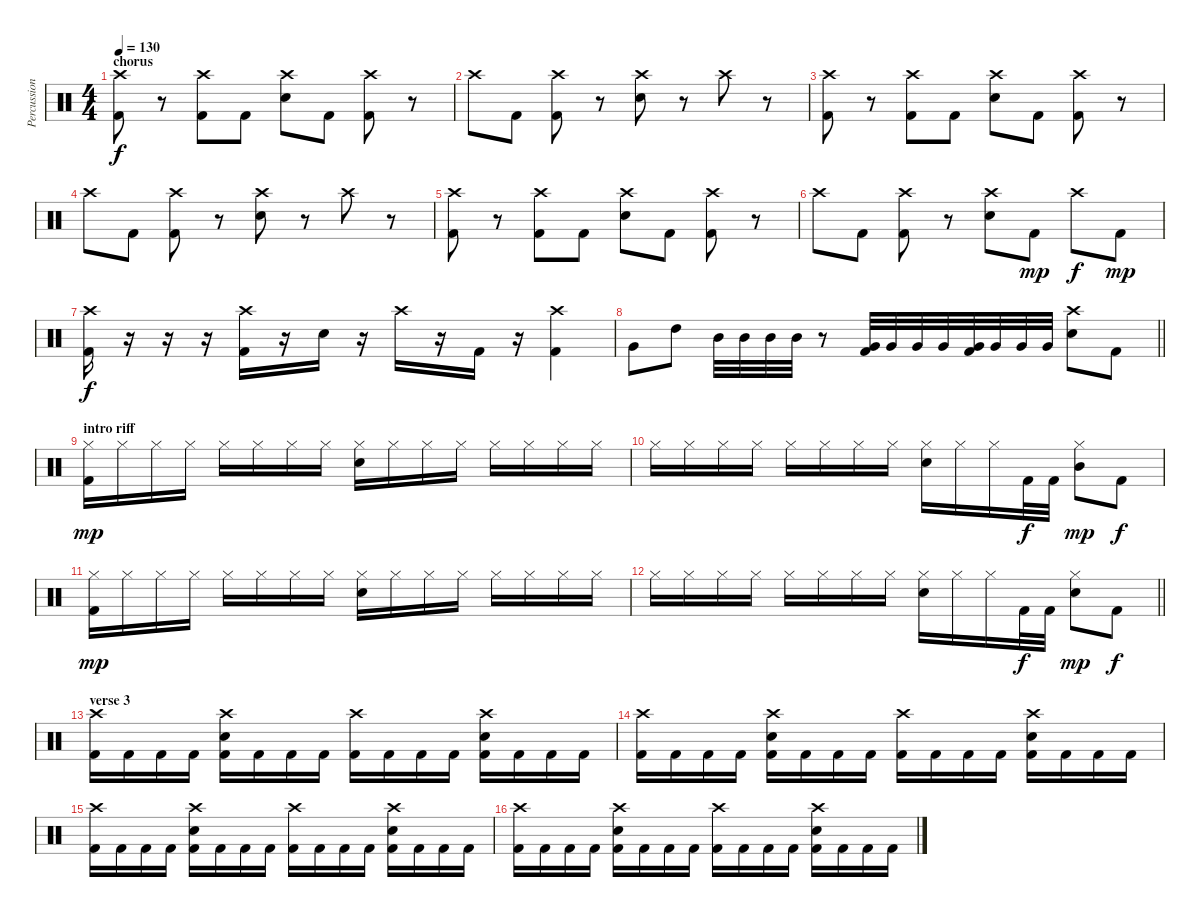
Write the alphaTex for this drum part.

\track ("Percussion" "Percussion") {instrument percussion}
\staff {score}
\articulation defaults
\ts (4 4)
\section ("" "chorus")
\tempo 130
\clef neutral
\ks c
("Crash high (hit)" "Kick (hit) 2").8{dy f} r.8 ("Crash high (hit)" "Kick (hit) 2").8 "Kick (hit) 2".8 ("Crash high (hit)" "Electric Snare (hit)").8 "Kick (hit) 2".8 ("Crash high (hit)" "Kick (hit) 2").8 r.8 |
"Crash high (hit)".8 "Kick (hit) 2".8 ("Crash high (hit)" "Kick (hit) 2").8 r.8 ("Crash high (hit)" "Electric Snare (hit)").8 r.8 "Crash high (hit)".8 r.8 |
("Crash high (hit)" "Kick (hit) 2").8 r.8 ("Crash high (hit)" "Kick (hit) 2").8 "Kick (hit) 2".8 ("Crash high (hit)" "Electric Snare (hit)").8 "Kick (hit) 2".8 ("Crash high (hit)" "Kick (hit) 2").8 r.8 |
"Crash high (hit)".8 "Kick (hit) 2".8 ("Crash high (hit)" "Kick (hit) 2").8 r.8 ("Crash high (hit)" "Electric Snare (hit)").8 r.8 "Crash high (hit)".8 r.8 |
("Crash high (hit)" "Kick (hit) 2").8 r.8 ("Crash high (hit)" "Kick (hit) 2").8 "Kick (hit) 2".8 ("Crash high (hit)" "Electric Snare (hit)").8 "Kick (hit) 2".8 ("Crash high (hit)" "Kick (hit) 2").8 r.8 |
"Crash high (hit)".8 "Kick (hit) 2".8 ("Crash high (hit)" "Kick (hit) 2").8 r.8 ("Crash high (hit)" "Electric Snare (hit)").8 "Kick (hit) 2".8{dy mp} "Crash high (hit)".8{dy f} "Kick (hit) 2".8{dy mp} |
("Crash high (hit)" "Kick (hit) 2").16{dy f} r.16 r.16 r.16 ("Crash high (hit)" "Kick (hit) 2").16 r.16 "Electric Snare (hit)".16 r.16 "Crash high (hit)".16 r.16 "Kick (hit) 2".16 r.16 ("Crash high (hit)" "Kick (hit) 2").4 |
\barLineRight lightlight "Very Low Tom (hit)".8 "High Tom (hit)".8 "Mid Tom (hit)".32 "Mid Tom (hit)".32 "Mid Tom (hit)".32 "Mid Tom (hit)".32
r.8 ("Very Low Tom (hit)" "Kick (hit) 2").32 "Very Low Tom (hit)".32 "Very Low Tom (hit)".32 "Very Low Tom (hit)".32 ("Very Low Tom (hit)" "Kick (hit) 2").32 "Very Low Tom (hit)".32 "Very Low Tom (hit)".32 "Very Low Tom (hit)".32 ("Crash high (hit)" "Electric Snare (hit)").8 "Kick (hit) 2".8 |
\section ("" "intro riff")
("Hi-Hat (closed)" "Kick (hit) 2").16{dy mp} "Hi-Hat (closed)".16 "Hi-Hat (closed)".16 "Hi-Hat (closed)".16 "Hi-Hat (closed)".16 "Hi-Hat (closed)".16 "Hi-Hat (closed)".16 "Hi-Hat (closed)".16 ("Hi-Hat (closed)" "Electric Snare (hit)").16 "Hi-Hat (closed)".16 "Hi-Hat (closed)".16 "Hi-Hat (closed)".16 "Hi-Hat (closed)".16 "Hi-Hat (closed)".16 "Hi-Hat (closed)".16 "Hi-Hat (closed)".16 |
"Hi-Hat (closed)".16 "Hi-Hat (closed)".16 "Hi-Hat (closed)".16 "Hi-Hat (closed)".16 "Hi-Hat (closed)".16 "Hi-Hat (closed)".16 "Hi-Hat (closed)".16 "Hi-Hat (closed)".16 ("Hi-Hat (closed)" "Electric Snare (hit)").16 "Hi-Hat (closed)".16 "Hi-Hat (closed)".16 "Kick (hit) 2".32{dy f} "Kick (hit) 2".32 ("Hi-Hat (closed)" "Mid Tom (hit)").8{dy mp} "Kick (hit) 2".8{dy f} |
("Hi-Hat (closed)" "Kick (hit) 2").16{dy mp} "Hi-Hat (closed)".16 "Hi-Hat (closed)".16 "Hi-Hat (closed)".16 "Hi-Hat (closed)".16 "Hi-Hat (closed)".16 "Hi-Hat (closed)".16 "Hi-Hat (closed)".16 ("Hi-Hat (closed)" "Electric Snare (hit)").16 "Hi-Hat (closed)".16 "Hi-Hat (closed)".16 "Hi-Hat (closed)".16 "Hi-Hat (closed)".16 "Hi-Hat (closed)".16 "Hi-Hat (closed)".16 "Hi-Hat (closed)".16 |
\barLineRight lightlight "Hi-Hat (closed)".16 "Hi-Hat (closed)".16 "Hi-Hat (closed)".16 "Hi-Hat (closed)".16 "Hi-Hat (closed)".16 "Hi-Hat (closed)".16 "Hi-Hat (closed)".16 "Hi-Hat (closed)".16
("Hi-Hat (closed)" "Electric Snare (hit)").16 "Hi-Hat (closed)".16 "Hi-Hat (closed)".16 "Kick (hit) 2".32{dy f} "Kick (hit) 2".32 ("Hi-Hat (closed)" "Electric Snare (hit)").8{dy mp} "Kick (hit) 2".8{dy f} |
\section ("" "verse 3")
("Crash high (hit)" "Kick (hit) 2").16 "Kick (hit) 2".16 "Kick (hit) 2".16 "Kick (hit) 2".16 ("Crash high (hit)" "Electric Snare (hit)" "Kick (hit) 2").16 "Kick (hit) 2".16 "Kick (hit) 2".16 "Kick (hit) 2".16 ("Crash high (hit)" "Kick (hit) 2").16 "Kick (hit) 2".16 "Kick (hit) 2".16 "Kick (hit) 2".16 ("Crash high (hit)" "Electric Snare (hit)" "Kick (hit) 2").16 "Kick (hit) 2".16 "Kick (hit) 2".16 "Kick (hit) 2".16 |
("Crash high (hit)" "Kick (hit) 2").16 "Kick (hit) 2".16 "Kick (hit) 2".16 "Kick (hit) 2".16 ("Crash high (hit)" "Electric Snare (hit)" "Kick (hit) 2").16 "Kick (hit) 2".16 "Kick (hit) 2".16 "Kick (hit) 2".16 ("Crash high (hit)" "Kick (hit) 2").16 "Kick (hit) 2".16 "Kick (hit) 2".16 "Kick (hit) 2".16 ("Crash high (hit)" "Electric Snare (hit)" "Kick (hit) 2").16 "Kick (hit) 2".16 "Kick (hit) 2".16 "Kick (hit) 2".16 |
("Crash high (hit)" "Kick (hit) 2").16 "Kick (hit) 2".16 "Kick (hit) 2".16 "Kick (hit) 2".16 ("Crash high (hit)" "Electric Snare (hit)" "Kick (hit) 2").16 "Kick (hit) 2".16 "Kick (hit) 2".16 "Kick (hit) 2".16 ("Crash high (hit)" "Kick (hit) 2").16 "Kick (hit) 2".16 "Kick (hit) 2".16 "Kick (hit) 2".16 ("Crash high (hit)" "Electric Snare (hit)" "Kick (hit) 2").16 "Kick (hit) 2".16 "Kick (hit) 2".16 "Kick (hit) 2".16 |
("Crash high (hit)" "Kick (hit) 2").16 "Kick (hit) 2".16 "Kick (hit) 2".16 "Kick (hit) 2".16 ("Crash high (hit)" "Electric Snare (hit)" "Kick (hit) 2").16 "Kick (hit) 2".16 "Kick (hit) 2".16 "Kick (hit) 2".16 ("Crash high (hit)" "Kick (hit) 2").16 "Kick (hit) 2".16 "Kick (hit) 2".16 "Kick (hit) 2".16 ("Crash high (hit)" "Electric Snare (hit)" "Kick (hit) 2").16 "Kick (hit) 2".16 "Kick (hit) 2".16 "Kick (hit) 2".16
